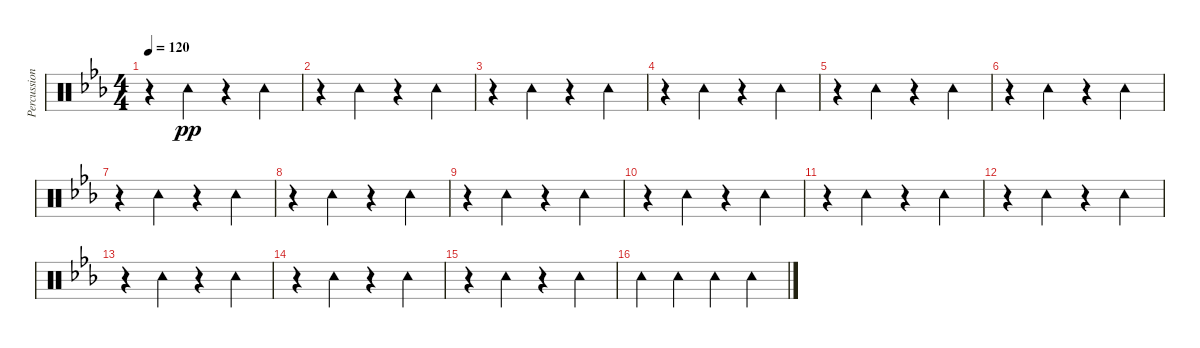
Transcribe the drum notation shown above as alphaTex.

\track ("Percussion" "Percussion") {instrument percussion}
\staff {score}
\articulation defaults
\ts (4 4)
\tempo 120
\clef neutral
\ks cminor
r.4{dy pp} "Tambourine (hit)".4 r.4 "Tambourine (hit)".4 |
r.4 "Tambourine (hit)".4 r.4 "Tambourine (hit)".4 |
r.4 "Tambourine (hit)".4 r.4 "Tambourine (hit)".4 |
r.4 "Tambourine (hit)".4 r.4 "Tambourine (hit)".4 |
r.4 "Tambourine (hit)".4 r.4 "Tambourine (hit)".4 |
r.4 "Tambourine (hit)".4 r.4 "Tambourine (hit)".4 |
r.4 "Tambourine (hit)".4 r.4 "Tambourine (hit)".4 |
r.4 "Tambourine (hit)".4 r.4 "Tambourine (hit)".4 |
r.4 "Tambourine (hit)".4 r.4 "Tambourine (hit)".4 |
r.4 "Tambourine (hit)".4 r.4 "Tambourine (hit)".4 |
r.4 "Tambourine (hit)".4 r.4 "Tambourine (hit)".4 |
r.4 "Tambourine (hit)".4 r.4 "Tambourine (hit)".4 |
r.4 "Tambourine (hit)".4 r.4 "Tambourine (hit)".4 |
r.4 "Tambourine (hit)".4 r.4 "Tambourine (hit)".4 |
r.4 "Tambourine (hit)".4 r.4 "Tambourine (hit)".4 |
"Tambourine (hit)".4 "Tambourine (hit)".4 "Tambourine (hit)".4 "Tambourine (hit)".4
